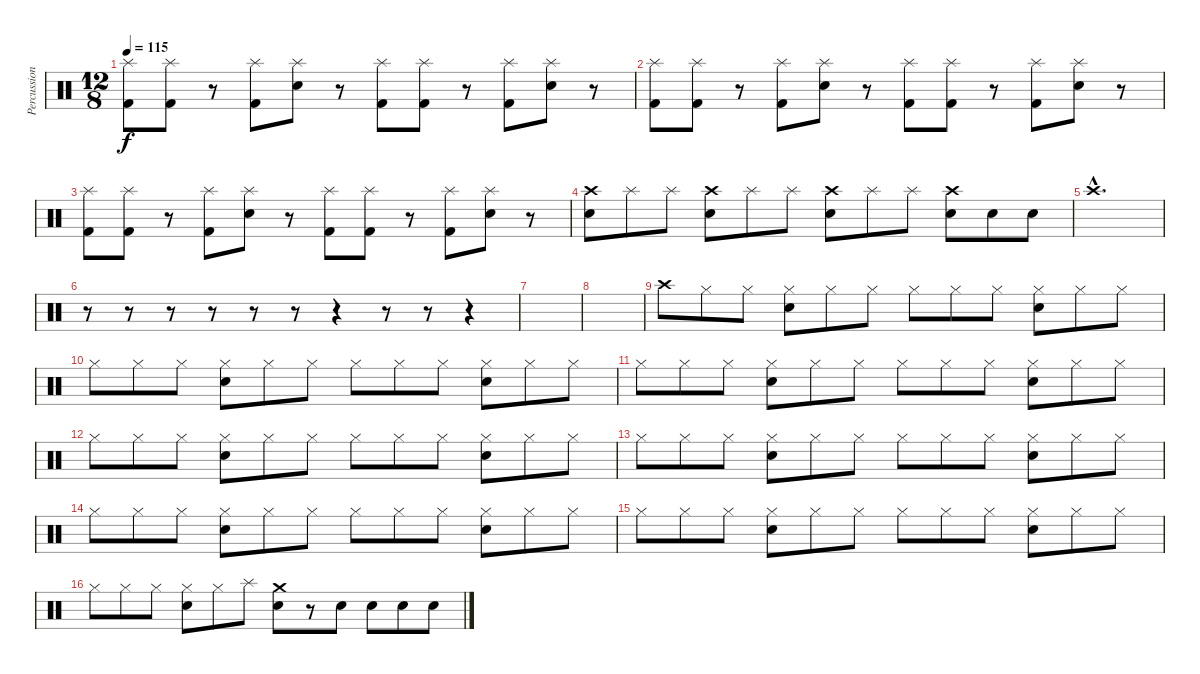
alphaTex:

\track ("Percussions" "Percussion") {instrument percussion}
\staff {score}
\articulation defaults
\ts (12 8)
\tempo 115
\clef neutral
\ks c
("Splash (hit)" "Kick (hit) 2").8{dy f} ("Splash (hit)" "Kick (hit) 2").8 r.8 ("Splash (hit)" "Kick (hit) 2").8 ("Splash (hit)" "Snare (hit) 2").8 r.8 ("Splash (hit)" "Kick (hit) 2").8 ("Splash (hit)" "Kick (hit) 2").8 r.8 ("Splash (hit)" "Kick (hit) 2").8 ("Splash (hit)" "Snare (hit) 2").8 r.8 |
("Splash (hit)" "Kick (hit) 2").8 ("Splash (hit)" "Kick (hit) 2").8 r.8 ("Splash (hit)" "Kick (hit) 2").8 ("Splash (hit)" "Snare (hit) 2").8 r.8 ("Splash (hit)" "Kick (hit) 2").8 ("Splash (hit)" "Kick (hit) 2").8 r.8 ("Splash (hit)" "Kick (hit) 2").8 ("Splash (hit)" "Snare (hit) 2").8 r.8 |
("Splash (hit)" "Kick (hit) 2").8 ("Splash (hit)" "Kick (hit) 2").8 r.8 ("Splash (hit)" "Kick (hit) 2").8 ("Splash (hit)" "Snare (hit) 2").8 r.8 ("Splash (hit)" "Kick (hit) 2").8 ("Splash (hit)" "Kick (hit) 2").8 r.8 ("Splash (hit)" "Kick (hit) 2").8 ("Splash (hit)" "Snare (hit) 2").8 r.8 |
("Crash high (hit)" "Snare (hit) 2").8 "Splash (hit)".8 "Splash (hit)".8 ("Crash high (hit)" "Snare (hit) 2").8 "Splash (hit)".8 "Splash (hit)".8 ("Crash high (hit)" "Snare (hit) 2").8 "Splash (hit)".8 "Splash (hit)".8 ("Crash high (hit)" "Snare (hit) 2").8 "Snare (hit) 2".8 "Snare (hit) 2".8 |
"Crash high (hit)"{hac}.1{d} |
r.8 r.8 r.8 r.8 r.8 r.8 r.4 r.8 r.8 r.4 |
|
|
"Crash high (hit)".8 "Hi-Hat (closed)".8 "Hi-Hat (closed)".8 ("Hi-Hat (closed)" "Electric Snare (hit)").8 "Hi-Hat (closed)".8 "Hi-Hat (closed)".8 "Hi-Hat (closed)".8 "Hi-Hat (closed)".8 "Hi-Hat (closed)".8 ("Hi-Hat (closed)" "Electric Snare (hit)").8 "Hi-Hat (closed)".8 "Hi-Hat (closed)".8 |
"Hi-Hat (closed)".8 "Hi-Hat (closed)".8 "Hi-Hat (closed)".8 ("Hi-Hat (closed)" "Electric Snare (hit)").8 "Hi-Hat (closed)".8 "Hi-Hat (closed)".8 "Hi-Hat (closed)".8 "Hi-Hat (closed)".8 "Hi-Hat (closed)".8 ("Hi-Hat (closed)" "Electric Snare (hit)").8 "Hi-Hat (closed)".8 "Hi-Hat (closed)".8 |
"Hi-Hat (closed)".8 "Hi-Hat (closed)".8 "Hi-Hat (closed)".8 ("Hi-Hat (closed)" "Electric Snare (hit)").8 "Hi-Hat (closed)".8 "Hi-Hat (closed)".8 "Hi-Hat (closed)".8 "Hi-Hat (closed)".8 "Hi-Hat (closed)".8 ("Hi-Hat (closed)" "Electric Snare (hit)").8 "Hi-Hat (closed)".8 "Hi-Hat (closed)".8 |
"Hi-Hat (closed)".8 "Hi-Hat (closed)".8 "Hi-Hat (closed)".8 ("Hi-Hat (closed)" "Electric Snare (hit)").8 "Hi-Hat (closed)".8 "Hi-Hat (closed)".8 "Hi-Hat (closed)".8 "Hi-Hat (closed)".8 "Hi-Hat (closed)".8 ("Hi-Hat (closed)" "Electric Snare (hit)").8 "Hi-Hat (closed)".8 "Hi-Hat (closed)".8 |
"Hi-Hat (closed)".8 "Hi-Hat (closed)".8 "Hi-Hat (closed)".8 ("Hi-Hat (closed)" "Electric Snare (hit)").8 "Hi-Hat (closed)".8 "Hi-Hat (closed)".8 "Hi-Hat (closed)".8 "Hi-Hat (closed)".8 "Hi-Hat (closed)".8 ("Hi-Hat (closed)" "Electric Snare (hit)").8 "Hi-Hat (closed)".8 "Hi-Hat (closed)".8 |
"Hi-Hat (closed)".8 "Hi-Hat (closed)".8 "Hi-Hat (closed)".8 ("Hi-Hat (closed)" "Electric Snare (hit)").8 "Hi-Hat (closed)".8 "Hi-Hat (closed)".8 "Hi-Hat (closed)".8 "Hi-Hat (closed)".8 "Hi-Hat (closed)".8 ("Hi-Hat (closed)" "Electric Snare (hit)").8 "Hi-Hat (closed)".8 "Hi-Hat (closed)".8 |
"Hi-Hat (closed)".8 "Hi-Hat (closed)".8 "Hi-Hat (closed)".8 ("Hi-Hat (closed)" "Electric Snare (hit)").8 "Hi-Hat (closed)".8 "Hi-Hat (closed)".8 "Hi-Hat (closed)".8 "Hi-Hat (closed)".8 "Hi-Hat (closed)".8 ("Hi-Hat (closed)" "Electric Snare (hit)").8 "Hi-Hat (closed)".8 "Hi-Hat (closed)".8 |
"Hi-Hat (closed)".8 "Hi-Hat (closed)".8 "Hi-Hat (closed)".8 ("Hi-Hat (closed)" "Electric Snare (hit)").8 "Hi-Hat (closed)".8 "Splash (hit)".8 ("Crash medium (hit)" "Electric Snare (hit)").8 r.8 "Snare (hit) 2".8 "Snare (hit) 2".8 "Snare (hit) 2".8 "Snare (hit) 2".8
